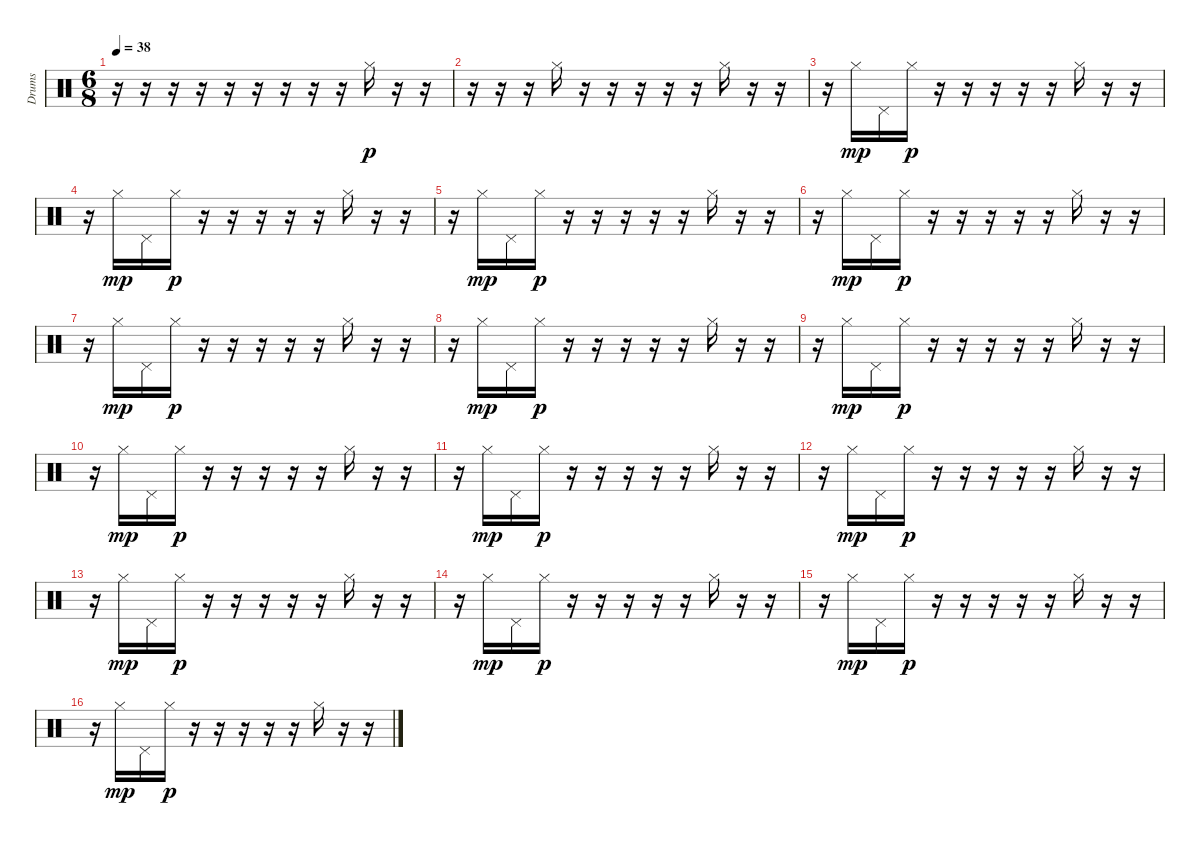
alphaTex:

\track ("Drums" "Drums") {instrument percussion}
\staff {score}
\articulation defaults
\ts (6 8)
\tempo 38
\clef neutral
\ks c
r.16{dy p} r.16 r.16 r.16 r.16 r.16 r.16 r.16 r.16 "Hi-Hat (closed)".16 r.16 r.16 |
r.16 r.16 r.16 "Hi-Hat (closed)".16 r.16 r.16 r.16 r.16 r.16 "Hi-Hat (closed)".16 r.16 r.16 |
r.16 "Hi-Hat (closed)".16{dy mp} "Pedal Hi-Hat (hit)".16 "Hi-Hat (closed)".16{dy p} r.16 r.16 r.16 r.16 r.16 "Hi-Hat (closed)".16 r.16 r.16 |
r.16 "Hi-Hat (closed)".16{dy mp} "Pedal Hi-Hat (hit)".16 "Hi-Hat (closed)".16{dy p} r.16 r.16 r.16 r.16 r.16 "Hi-Hat (closed)".16 r.16 r.16 |
r.16 "Hi-Hat (closed)".16{dy mp} "Pedal Hi-Hat (hit)".16 "Hi-Hat (closed)".16{dy p} r.16 r.16 r.16 r.16 r.16 "Hi-Hat (closed)".16 r.16 r.16 |
r.16 "Hi-Hat (closed)".16{dy mp} "Pedal Hi-Hat (hit)".16 "Hi-Hat (closed)".16{dy p} r.16 r.16 r.16 r.16 r.16 "Hi-Hat (closed)".16 r.16 r.16 |
r.16 "Hi-Hat (closed)".16{dy mp} "Pedal Hi-Hat (hit)".16 "Hi-Hat (closed)".16{dy p} r.16 r.16 r.16 r.16 r.16 "Hi-Hat (closed)".16 r.16 r.16 |
r.16 "Hi-Hat (closed)".16{dy mp} "Pedal Hi-Hat (hit)".16 "Hi-Hat (closed)".16{dy p} r.16 r.16 r.16 r.16 r.16 "Hi-Hat (closed)".16 r.16 r.16 |
r.16 "Hi-Hat (closed)".16{dy mp} "Pedal Hi-Hat (hit)".16 "Hi-Hat (closed)".16{dy p} r.16 r.16 r.16 r.16 r.16 "Hi-Hat (closed)".16 r.16 r.16 |
r.16 "Hi-Hat (closed)".16{dy mp} "Pedal Hi-Hat (hit)".16 "Hi-Hat (closed)".16{dy p} r.16 r.16 r.16 r.16 r.16 "Hi-Hat (closed)".16 r.16 r.16 |
r.16 "Hi-Hat (closed)".16{dy mp} "Pedal Hi-Hat (hit)".16 "Hi-Hat (closed)".16{dy p} r.16 r.16 r.16 r.16 r.16 "Hi-Hat (closed)".16 r.16 r.16 |
r.16 "Hi-Hat (closed)".16{dy mp} "Pedal Hi-Hat (hit)".16 "Hi-Hat (closed)".16{dy p} r.16 r.16 r.16 r.16 r.16 "Hi-Hat (closed)".16 r.16 r.16 |
r.16 "Hi-Hat (closed)".16{dy mp} "Pedal Hi-Hat (hit)".16 "Hi-Hat (closed)".16{dy p} r.16 r.16 r.16 r.16 r.16 "Hi-Hat (closed)".16 r.16 r.16 |
r.16 "Hi-Hat (closed)".16{dy mp} "Pedal Hi-Hat (hit)".16 "Hi-Hat (closed)".16{dy p} r.16 r.16 r.16 r.16 r.16 "Hi-Hat (closed)".16 r.16 r.16 |
r.16 "Hi-Hat (closed)".16{dy mp} "Pedal Hi-Hat (hit)".16 "Hi-Hat (closed)".16{dy p} r.16 r.16 r.16 r.16 r.16 "Hi-Hat (closed)".16 r.16 r.16 |
r.16 "Hi-Hat (closed)".16{dy mp} "Pedal Hi-Hat (hit)".16 "Hi-Hat (closed)".16{dy p} r.16 r.16 r.16 r.16 r.16 "Hi-Hat (closed)".16 r.16 r.16
